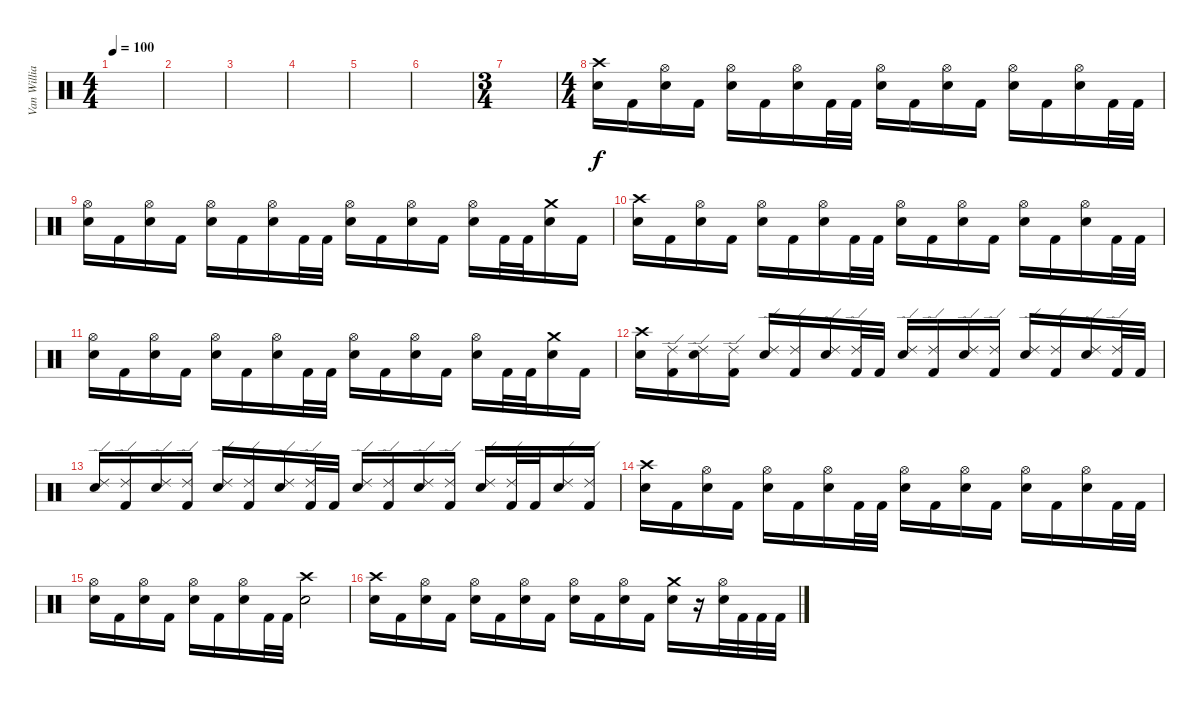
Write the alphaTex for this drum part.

\track ("Van Williams" "Van Willia") {instrument percussion}
\staff {score}
\articulation defaults
\ts (4 4)
\tempo 100
\clef neutral
\ks c
|
|
|
|
|
|
\ts (3 4)
|
\ts (4 4)
("Crash high (hit)" "Electric Snare (hit)").16 "Kick (hit) 2".16 ("Hi-Hat (open)" "Electric Snare (hit)").16 "Kick (hit) 2".16 ("Hi-Hat (open)" "Electric Snare (hit)").16 "Kick (hit) 2".16 ("Hi-Hat (open)" "Electric Snare (hit)").16 "Kick (hit) 2".32 "Kick (hit) 2".32 ("Hi-Hat (open)" "Electric Snare (hit)").16 "Kick (hit) 2".16 ("Hi-Hat (open)" "Electric Snare (hit)").16 "Kick (hit) 2".16 ("Hi-Hat (open)" "Electric Snare (hit)").16 "Kick (hit) 2".16 ("Hi-Hat (open)" "Electric Snare (hit)").16 "Kick (hit) 2".32 "Kick (hit) 2".32 |
("Hi-Hat (open)" "Electric Snare (hit)").16 "Kick (hit) 2".16 ("Hi-Hat (open)" "Electric Snare (hit)").16 "Kick (hit) 2".16 ("Hi-Hat (open)" "Electric Snare (hit)").16 "Kick (hit) 2".16 ("Hi-Hat (open)" "Electric Snare (hit)").16 "Kick (hit) 2".32 "Kick (hit) 2".32 ("Hi-Hat (open)" "Electric Snare (hit)").16 "Kick (hit) 2".16 ("Hi-Hat (open)" "Electric Snare (hit)").16 "Kick (hit) 2".16 ("Hi-Hat (open)" "Electric Snare (hit)").16 "Kick (hit) 2".32 "Kick (hit) 2".32 ("Crash medium (hit)" "Electric Snare (hit)").16 "Kick (hit) 2".16 |
("Crash high (hit)" "Electric Snare (hit)").16 "Kick (hit) 2".16 ("Hi-Hat (open)" "Electric Snare (hit)").16 "Kick (hit) 2".16 ("Hi-Hat (open)" "Electric Snare (hit)").16 "Kick (hit) 2".16 ("Hi-Hat (open)" "Electric Snare (hit)").16 "Kick (hit) 2".32 "Kick (hit) 2".32 ("Hi-Hat (open)" "Electric Snare (hit)").16 "Kick (hit) 2".16 ("Hi-Hat (open)" "Electric Snare (hit)").16 "Kick (hit) 2".16 ("Hi-Hat (open)" "Electric Snare (hit)").16 "Kick (hit) 2".16 ("Hi-Hat (open)" "Electric Snare (hit)").16 "Kick (hit) 2".32 "Kick (hit) 2".32 |
("Hi-Hat (open)" "Electric Snare (hit)").16 "Kick (hit) 2".16 ("Hi-Hat (open)" "Electric Snare (hit)").16 "Kick (hit) 2".16 ("Hi-Hat (open)" "Electric Snare (hit)").16 "Kick (hit) 2".16 ("Hi-Hat (open)" "Electric Snare (hit)").16 "Kick (hit) 2".32 "Kick (hit) 2".32 ("Hi-Hat (open)" "Electric Snare (hit)").16 "Kick (hit) 2".16 ("Hi-Hat (open)" "Electric Snare (hit)").16 "Kick (hit) 2".16 ("Hi-Hat (open)" "Electric Snare (hit)").16 "Kick (hit) 2".32 "Kick (hit) 2".32 ("Crash medium (hit)" "Electric Snare (hit)").16 "Kick (hit) 2".16 |
("Crash high (hit)" "Electric Snare (hit)").16 ("Ride (edge) 2" "Kick (hit) 2").16 ("Ride (edge) 2" "Electric Snare (hit)").16 ("Ride (edge) 2" "Kick (hit) 2").16 ("Ride (edge) 2" "Electric Snare (hit)").16 ("Ride (edge) 2" "Kick (hit) 2").16 ("Ride (edge) 2" "Electric Snare (hit)").16 ("Ride (edge) 2" "Kick (hit) 2").32 "Kick (hit) 2".32 ("Ride (edge) 2" "Electric Snare (hit)").16 ("Ride (edge) 2" "Kick (hit) 2").16 ("Ride (edge) 2" "Electric Snare (hit)").16 ("Ride (edge) 2" "Kick (hit) 2").16 ("Ride (edge) 2" "Electric Snare (hit)").16 ("Ride (edge) 2" "Kick (hit) 2").16 ("Ride (edge) 2" "Electric Snare (hit)").16 ("Ride (edge) 2" "Kick (hit) 2").32 "Kick (hit) 2".32 |
("Ride (edge) 2" "Electric Snare (hit)").16 ("Ride (edge) 2" "Kick (hit) 2").16 ("Ride (edge) 2" "Electric Snare (hit)").16 ("Ride (edge) 2" "Kick (hit) 2").16 ("Ride (edge) 2" "Electric Snare (hit)").16 ("Ride (edge) 2" "Kick (hit) 2").16 ("Ride (edge) 2" "Electric Snare (hit)").16 ("Ride (edge) 2" "Kick (hit) 2").32 "Kick (hit) 2".32 ("Ride (edge) 2" "Electric Snare (hit)").16 ("Ride (edge) 2" "Kick (hit) 2").16 ("Ride (edge) 2" "Electric Snare (hit)").16 ("Ride (edge) 2" "Kick (hit) 2").16 ("Ride (edge) 2" "Electric Snare (hit)").16 ("Ride (edge) 2" "Kick (hit) 2").32 "Kick (hit) 2".32 ("Ride (edge) 2" "Electric Snare (hit)").16 ("Ride (edge) 2" "Kick (hit) 2").16 |
("Crash high (hit)" "Electric Snare (hit)").16 "Kick (hit) 2".16 ("Hi-Hat (open)" "Electric Snare (hit)").16 "Kick (hit) 2".16 ("Hi-Hat (open)" "Electric Snare (hit)").16 "Kick (hit) 2".16 ("Hi-Hat (open)" "Electric Snare (hit)").16 "Kick (hit) 2".32 "Kick (hit) 2".32 ("Hi-Hat (open)" "Electric Snare (hit)").16 "Kick (hit) 2".16 ("Hi-Hat (open)" "Electric Snare (hit)").16 "Kick (hit) 2".16 ("Hi-Hat (open)" "Electric Snare (hit)").16 "Kick (hit) 2".16 ("Hi-Hat (open)" "Electric Snare (hit)").16 "Kick (hit) 2".32 "Kick (hit) 2".32 |
("Hi-Hat (open)" "Electric Snare (hit)").16 "Kick (hit) 2".16 ("Hi-Hat (open)" "Electric Snare (hit)").16 "Kick (hit) 2".16 ("Hi-Hat (open)" "Electric Snare (hit)").16 "Kick (hit) 2".16 ("Hi-Hat (open)" "Electric Snare (hit)").16 "Kick (hit) 2".32 "Kick (hit) 2".32 ("Crash high (hit)" "Electric Snare (hit)").2 |
("Crash high (hit)" "Electric Snare (hit)").16 "Kick (hit) 2".16 ("Hi-Hat (open)" "Electric Snare (hit)").16 "Kick (hit) 2".16 ("Hi-Hat (open)" "Electric Snare (hit)").16 "Kick (hit) 2".16 ("Hi-Hat (open)" "Electric Snare (hit)").16 "Kick (hit) 2".16 ("Hi-Hat (open)" "Electric Snare (hit)").16 "Kick (hit) 2".16 ("Hi-Hat (open)" "Electric Snare (hit)").16 "Kick (hit) 2".16 ("Crash medium (hit)" "Electric Snare (hit)").16 r.16 ("Hi-Hat (open)" "Electric Snare (hit)").32 "Kick (hit) 2".32 "Kick (hit) 2".32 "Kick (hit) 2".32
